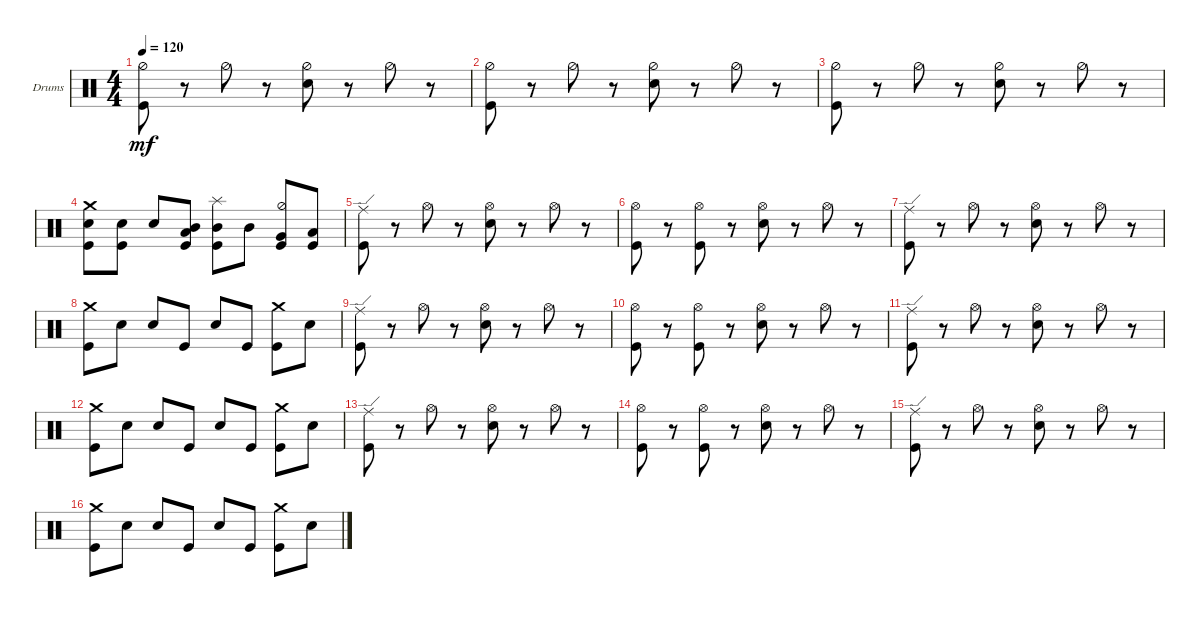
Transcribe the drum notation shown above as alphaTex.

\bracketExtendMode groupsimilarinstruments
\firstSystemTrackNameOrientation horizontal
\otherSystemsTrackNameOrientation horizontal
\track ("Drumkit" "Drums") {instrument percussion}
\staff {score}
\articulation defaults
\ts (4 4)
\tempo 120
\clef neutral
\ks c
("Kick (hit)" "Hi-Hat (half)").8{dy mf} r.8 "Hi-Hat (half)".8 r.8 ("Snare (hit) 2" "Hi-Hat (half)").8 r.8 "Hi-Hat (half)".8 r.8 |
("Kick (hit)" "Hi-Hat (half)").8 r.8 "Hi-Hat (half)".8 r.8 ("Snare (hit) 2" "Hi-Hat (half)").8 r.8 "Hi-Hat (half)".8 r.8 |
("Kick (hit)" "Hi-Hat (half)").8 r.8 "Hi-Hat (half)".8 r.8 ("Snare (hit) 2" "Hi-Hat (half)").8 r.8 "Hi-Hat (half)".8 r.8 |
("Kick (hit)" "Snare (hit) 2" "Crash medium (hit)").8 ("Snare (hit) 2" "Kick (hit)").8 "Snare (hit) 2".8 ("Kick (hit)" "Low Tom (hit)" "Mid Tom (hit)").8 ("Kick (hit)" "Mid Tom (hit)" "Splash (hit)").8 "Mid Tom (hit)".8 ("Kick (hit)" "Hi-Hat (half)" "Very Low Tom (hit)").8 ("Kick (hit)" "Low Tom (hit)").8 |
("Kick (hit)" "Ride (edge)").8 r.8 "Hi-Hat (open)".8 r.8 ("Snare (hit) 2" "Hi-Hat (open)").8 r.8 "Hi-Hat (open)".8 r.8 |
("Kick (hit)" "Hi-Hat (open)").8 r.8 ("Kick (hit)" "Hi-Hat (open)").8 r.8 ("Snare (hit) 2" "Hi-Hat (open)").8 r.8 "Hi-Hat (open)".8 r.8 |
("Kick (hit)" "Ride (edge)").8 r.8 "Hi-Hat (open)".8 r.8 ("Snare (hit) 2" "Hi-Hat (open)").8 r.8 "Hi-Hat (open)".8 r.8 |
("Kick (hit)" "Crash medium (hit)").8 "Snare (hit) 2".8 "Snare (hit) 2".8 "Kick (hit)".8 "Snare (hit) 2".8 "Kick (hit)".8 ("Kick (hit)" "Crash medium (hit)").8 "Snare (hit) 2".8 |
("Kick (hit)" "Ride (edge)").8 r.8 "Hi-Hat (open)".8 r.8 ("Snare (hit) 2" "Hi-Hat (open)").8 r.8 "Hi-Hat (open)".8 r.8 |
("Kick (hit)" "Hi-Hat (open)").8 r.8 ("Kick (hit)" "Hi-Hat (open)").8 r.8 ("Snare (hit) 2" "Hi-Hat (open)").8 r.8 "Hi-Hat (open)".8 r.8 |
("Kick (hit)" "Ride (edge)").8 r.8 "Hi-Hat (open)".8 r.8 ("Snare (hit) 2" "Hi-Hat (open)").8 r.8 "Hi-Hat (open)".8 r.8 |
("Kick (hit)" "Crash medium (hit)").8 "Snare (hit) 2".8 "Snare (hit) 2".8 "Kick (hit)".8 "Snare (hit) 2".8 "Kick (hit)".8 ("Kick (hit)" "Crash medium (hit)").8 "Snare (hit) 2".8 |
("Kick (hit)" "Ride (edge)").8 r.8 "Hi-Hat (open)".8 r.8 ("Snare (hit) 2" "Hi-Hat (open)").8 r.8 "Hi-Hat (open)".8 r.8 |
("Kick (hit)" "Hi-Hat (open)").8 r.8 ("Kick (hit)" "Hi-Hat (open)").8 r.8 ("Snare (hit) 2" "Hi-Hat (open)").8 r.8 "Hi-Hat (open)".8 r.8 |
("Kick (hit)" "Ride (edge)").8 r.8 "Hi-Hat (open)".8 r.8 ("Snare (hit) 2" "Hi-Hat (open)").8 r.8 "Hi-Hat (open)".8 r.8 |
("Kick (hit)" "Crash medium (hit)").8 "Snare (hit) 2".8 "Snare (hit) 2".8 "Kick (hit)".8 "Snare (hit) 2".8 "Kick (hit)".8 ("Kick (hit)" "Crash medium (hit)").8 "Snare (hit) 2".8
